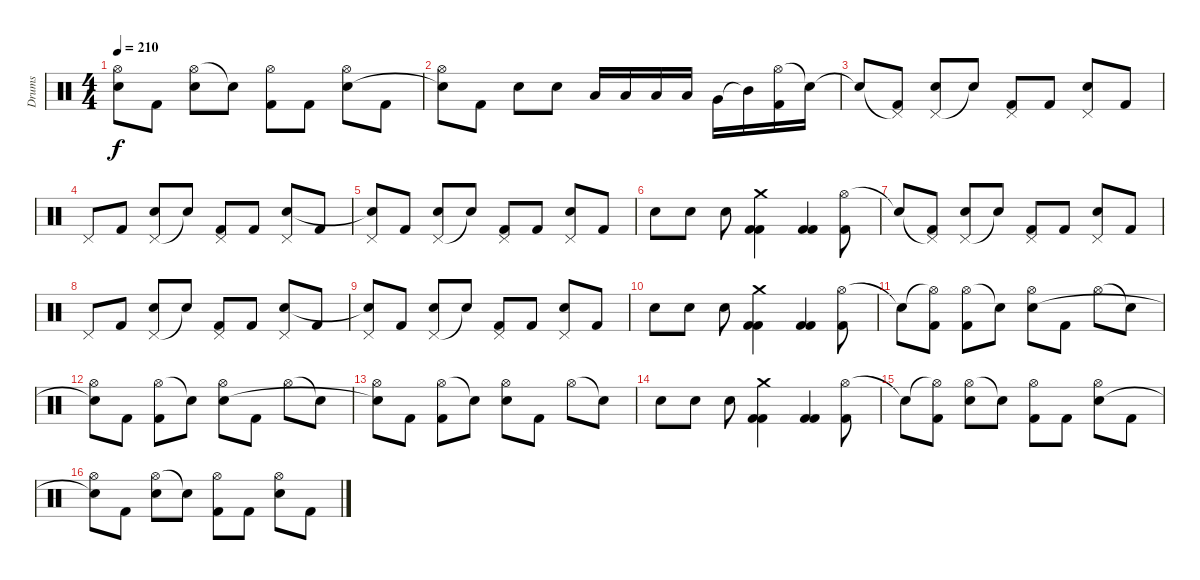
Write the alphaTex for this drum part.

\track ("Drums" "Drums") {instrument percussion}
\staff {score}
\articulation defaults
\ts (4 4)
\tempo 210
\clef neutral
\ks c
("Hi-Hat (open)" "Snare (hit)"{t}).8{dy f} "Kick (hit) 2".8 ("Hi-Hat (open)" "Electric Snare (hit)").8 "Snare (hit)"{t}.8 ("Hi-Hat (open)" "Kick (hit) 2").8 "Kick (hit) 2".8 ("Hi-Hat (open)" "Electric Snare (hit)").8 "Kick (hit) 2".8 |
("Hi-Hat (open)" "Snare (hit)"{t}).8 "Kick (hit) 2".8 "Electric Snare (hit)".8 "Electric Snare (hit)".8 "Low Tom (hit)".16 "Low Tom (hit)".16 "Low Tom (hit)".16 "Low Tom (hit)".16 "Very Low Tom (hit)".16 "Mid Tom (hit)"{t}.16 ("Hi-Hat (open)" "Kick (hit) 2").16 "Snare (hit)"{t}.16 |
"Snare (hit)"{t}.8 ("Pedal Hi-Hat (hit)"{t} "Kick (hit) 2").8 ("Pedal Hi-Hat (hit)" "Electric Snare (hit)").8 "Snare (hit)"{t}.8 ("Pedal Hi-Hat (hit)" "Kick (hit) 2").8 "Kick (hit) 2".8 ("Pedal Hi-Hat (hit)" "Electric Snare (hit)").8 "Kick (hit) 2".8 |
"Pedal Hi-Hat (hit)".8 "Kick (hit) 2".8 ("Pedal Hi-Hat (hit)" "Electric Snare (hit)").8 "Snare (hit)"{t}.8 ("Pedal Hi-Hat (hit)" "Kick (hit) 2").8 "Kick (hit) 2".8 ("Pedal Hi-Hat (hit)" "Electric Snare (hit)").8 "Kick (hit) 2".8 |
("Pedal Hi-Hat (hit)" "Snare (hit)"{t}).8 "Kick (hit) 2".8 ("Pedal Hi-Hat (hit)" "Electric Snare (hit)").8 "Electric Snare (hit)"{t}.8 ("Pedal Hi-Hat (hit)" "Kick (hit) 2").8 "Kick (hit) 2".8 ("Pedal Hi-Hat (hit)" "Electric Snare (hit)").8 "Kick (hit) 2".8 |
"Electric Snare (hit)".8 "Electric Snare (hit)".8 "Electric Snare (hit)".8 ("Crash medium (hit)" "Kick (hit) 2" "Kick (hit) 2").4 ("Kick (hit) 2" "Kick (hit) 2").4 ("Hi-Hat (open)" "Kick (hit) 2").8 |
"Snare (hit)"{t}.8 ("Pedal Hi-Hat (hit)"{t} "Kick (hit) 2").8 ("Pedal Hi-Hat (hit)" "Electric Snare (hit)").8 "Snare (hit)"{t}.8 ("Pedal Hi-Hat (hit)" "Kick (hit) 2").8 "Kick (hit) 2".8 ("Pedal Hi-Hat (hit)" "Electric Snare (hit)").8 "Kick (hit) 2".8 |
"Pedal Hi-Hat (hit)".8 "Kick (hit) 2".8 ("Pedal Hi-Hat (hit)" "Electric Snare (hit)").8 "Snare (hit)"{t}.8 ("Pedal Hi-Hat (hit)" "Kick (hit) 2").8 "Kick (hit) 2".8 ("Pedal Hi-Hat (hit)" "Electric Snare (hit)").8 "Kick (hit) 2".8 |
("Pedal Hi-Hat (hit)" "Snare (hit)"{t}).8 "Kick (hit) 2".8 ("Pedal Hi-Hat (hit)" "Electric Snare (hit)").8 "Electric Snare (hit)"{t}.8 ("Pedal Hi-Hat (hit)" "Kick (hit) 2").8 "Kick (hit) 2".8 ("Pedal Hi-Hat (hit)" "Electric Snare (hit)").8 "Kick (hit) 2".8 |
"Electric Snare (hit)".8 "Electric Snare (hit)".8 "Electric Snare (hit)".8 ("Crash medium (hit)" "Kick (hit) 2" "Kick (hit) 2").4 ("Kick (hit) 2" "Kick (hit) 2").4 ("Hi-Hat (open)" "Kick (hit) 2").8 |
"Snare (hit)"{t}.8 ("Hi-Hat (open)"{t} "Kick (hit) 2").8 ("Hi-Hat (open)" "Kick (hit) 2").8 "Snare (hit)"{t}.8 ("Hi-Hat (open)" "Electric Snare (hit)").8 "Kick (hit) 2".8 "Hi-Hat (open)".8 "Snare (hit)"{t}.8 |
("Hi-Hat (open)" "Snare (hit)"{t}).8 "Kick (hit) 2".8 ("Hi-Hat (open)" "Kick (hit) 2").8 "Snare (hit)"{t}.8 ("Hi-Hat (open)" "Electric Snare (hit)").8 "Kick (hit) 2".8 "Hi-Hat (open)".8 "Snare (hit)"{t}.8 |
("Hi-Hat (open)" "Snare (hit)"{t}).8 "Kick (hit) 2".8 ("Hi-Hat (open)" "Kick (hit) 2").8 "Electric Snare (hit)"{t}.8 ("Hi-Hat (open)" "Electric Snare (hit)").8 "Kick (hit) 2".8 "Hi-Hat (open)".8 "Snare (hit)"{t}.8 |
"Electric Snare (hit)".8 "Electric Snare (hit)".8 "Electric Snare (hit)".8 ("Crash medium (hit)" "Kick (hit) 2" "Kick (hit) 2").4 ("Kick (hit) 2" "Kick (hit) 2").4 ("Hi-Hat (open)" "Kick (hit) 2").8 |
"Snare (hit)"{t}.8 ("Hi-Hat (open)"{t} "Kick (hit) 2").8 ("Hi-Hat (open)" "Electric Snare (hit)").8 "Snare (hit)"{t}.8 ("Hi-Hat (open)" "Kick (hit) 2").8 "Kick (hit) 2".8 ("Hi-Hat (open)" "Electric Snare (hit)").8 "Kick (hit) 2".8 |
("Hi-Hat (open)" "Snare (hit)"{t}).8 "Kick (hit) 2".8 ("Hi-Hat (open)" "Electric Snare (hit)").8 "Snare (hit)"{t}.8 ("Hi-Hat (open)" "Kick (hit) 2").8 "Kick (hit) 2".8 ("Hi-Hat (open)" "Electric Snare (hit)").8 "Kick (hit) 2".8
